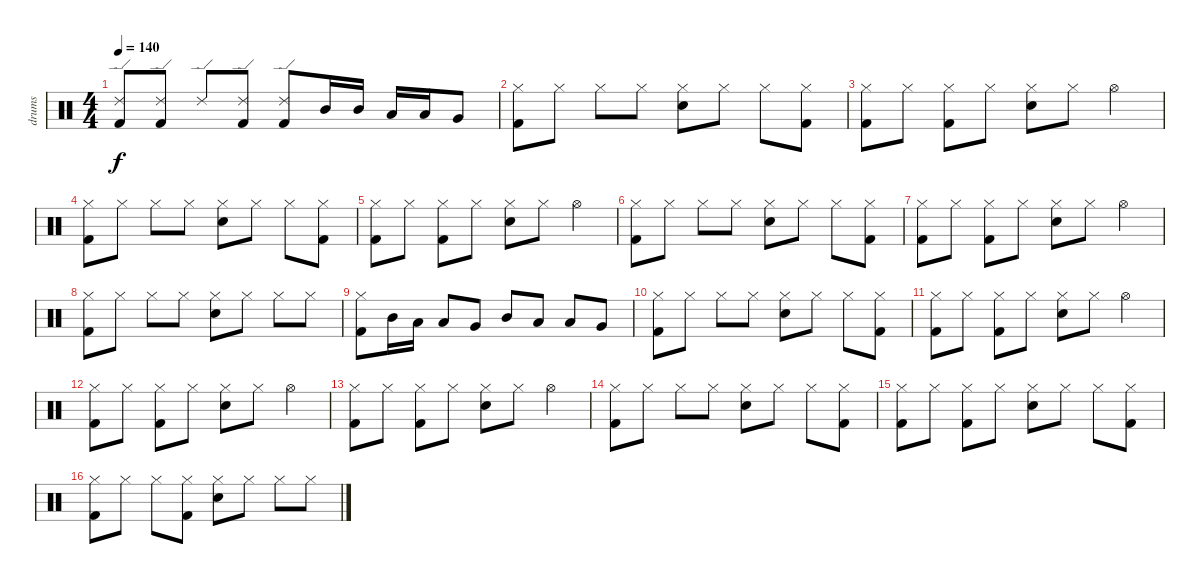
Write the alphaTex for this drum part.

\track ("drums" "drums") {instrument percussion}
\staff {score}
\articulation defaults
\ts (4 4)
\tempo 140
\clef neutral
\ks c
("Ride (edge) 2" "Kick (hit) 2").8{dy f} ("Ride (edge) 2" "Kick (hit) 2").8 "Ride (edge) 2".8 ("Ride (edge) 2" "Kick (hit) 2").8 ("Ride (edge) 2" "Kick (hit) 2").8 "Mid Tom (hit)".16 "Mid Tom (hit)".16 "Low Tom (hit)".16 "Low Tom (hit)".16 "Very Low Tom (hit)".8 |
("Hi-Hat (closed)" "Kick (hit) 2").8 "Hi-Hat (closed)".8 "Hi-Hat (closed)".8 "Hi-Hat (closed)".8 ("Hi-Hat (closed)" "Electric Snare (hit)").8 "Hi-Hat (closed)".8 "Hi-Hat (closed)".8 ("Hi-Hat (closed)" "Kick (hit) 2").8 |
("Hi-Hat (closed)" "Kick (hit) 2").8 "Hi-Hat (closed)".8 ("Hi-Hat (closed)" "Kick (hit) 2").8 "Hi-Hat (closed)".8 ("Hi-Hat (closed)" "Electric Snare (hit)").8 "Hi-Hat (closed)".8 "Hi-Hat (open)".4 |
("Hi-Hat (closed)" "Kick (hit) 2").8 "Hi-Hat (closed)".8 "Hi-Hat (closed)".8 "Hi-Hat (closed)".8 ("Hi-Hat (closed)" "Electric Snare (hit)").8 "Hi-Hat (closed)".8 "Hi-Hat (closed)".8 ("Hi-Hat (closed)" "Kick (hit) 2").8 |
("Hi-Hat (closed)" "Kick (hit) 2").8 "Hi-Hat (closed)".8 ("Hi-Hat (closed)" "Kick (hit) 2").8 "Hi-Hat (closed)".8 ("Hi-Hat (closed)" "Electric Snare (hit)").8 "Hi-Hat (closed)".8 "Hi-Hat (open)".4 |
("Hi-Hat (closed)" "Kick (hit) 2").8 "Hi-Hat (closed)".8 "Hi-Hat (closed)".8 "Hi-Hat (closed)".8 ("Hi-Hat (closed)" "Electric Snare (hit)").8 "Hi-Hat (closed)".8 "Hi-Hat (closed)".8 ("Hi-Hat (closed)" "Kick (hit) 2").8 |
("Hi-Hat (closed)" "Kick (hit) 2").8 "Hi-Hat (closed)".8 ("Hi-Hat (closed)" "Kick (hit) 2").8 "Hi-Hat (closed)".8 ("Hi-Hat (closed)" "Electric Snare (hit)").8 "Hi-Hat (closed)".8 "Hi-Hat (open)".4 |
("Hi-Hat (closed)" "Kick (hit) 2").8 "Hi-Hat (closed)".8 "Hi-Hat (closed)".8 "Hi-Hat (closed)".8 ("Hi-Hat (closed)" "Electric Snare (hit)").8 "Hi-Hat (closed)".8 "Hi-Hat (closed)".8 "Hi-Hat (closed)".8 |
("Hi-Hat (closed)" "Kick (hit) 2").8 "Mid Tom (hit)".16 "Low Tom (hit)".16 "Low Tom (hit)".8 "Very Low Tom (hit)".8 "Mid Tom (hit)".8 "Low Tom (hit)".8 "Low Tom (hit)".8 "Very Low Tom (hit)".8 |
("Hi-Hat (closed)" "Kick (hit) 2").8 "Hi-Hat (closed)".8 "Hi-Hat (closed)".8 "Hi-Hat (closed)".8 ("Hi-Hat (closed)" "Electric Snare (hit)").8 "Hi-Hat (closed)".8 "Hi-Hat (closed)".8 ("Hi-Hat (closed)" "Kick (hit) 2").8 |
("Hi-Hat (closed)" "Kick (hit) 2").8 "Hi-Hat (closed)".8 ("Hi-Hat (closed)" "Kick (hit) 2").8 "Hi-Hat (closed)".8 ("Hi-Hat (closed)" "Electric Snare (hit)").8 "Hi-Hat (closed)".8 "Hi-Hat (open)".4 |
("Hi-Hat (closed)" "Kick (hit) 2").8 "Hi-Hat (closed)".8 ("Hi-Hat (closed)" "Kick (hit) 2").8 "Hi-Hat (closed)".8 ("Hi-Hat (closed)" "Electric Snare (hit)").8 "Hi-Hat (closed)".8 "Hi-Hat (open)".4 |
("Hi-Hat (closed)" "Kick (hit) 2").8 "Hi-Hat (closed)".8 ("Hi-Hat (closed)" "Kick (hit) 2").8 "Hi-Hat (closed)".8 ("Hi-Hat (closed)" "Electric Snare (hit)").8 "Hi-Hat (closed)".8 "Hi-Hat (open)".4 |
("Hi-Hat (closed)" "Kick (hit) 2").8 "Hi-Hat (closed)".8 "Hi-Hat (closed)".8 "Hi-Hat (closed)".8 ("Hi-Hat (closed)" "Electric Snare (hit)").8 "Hi-Hat (closed)".8 "Hi-Hat (closed)".8 ("Hi-Hat (closed)" "Kick (hit) 2").8 |
("Hi-Hat (closed)" "Kick (hit) 2").8 "Hi-Hat (closed)".8 ("Hi-Hat (closed)" "Kick (hit) 2").8 "Hi-Hat (closed)".8 ("Hi-Hat (closed)" "Electric Snare (hit)").8 "Hi-Hat (closed)".8 "Hi-Hat (closed)".8 ("Hi-Hat (closed)" "Kick (hit) 2").8 |
("Hi-Hat (closed)" "Kick (hit) 2").8 "Hi-Hat (closed)".8 "Hi-Hat (closed)".8 ("Hi-Hat (closed)" "Kick (hit) 2").8 ("Hi-Hat (closed)" "Electric Snare (hit)").8 "Hi-Hat (closed)".8 "Hi-Hat (closed)".8 "Hi-Hat (closed)".8
